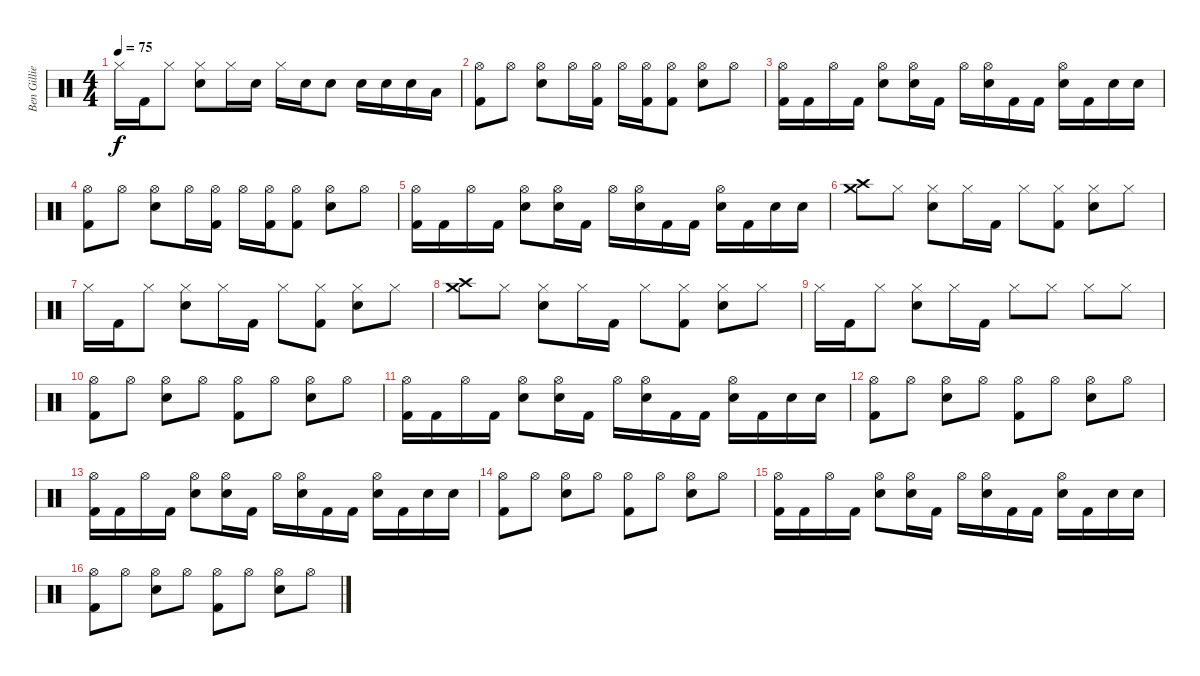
\track ("Ben Gillies" "Ben Gillie") {instrument percussion}
\staff {score}
\articulation defaults
\ts (4 4)
\tempo 75
\clef neutral
\ks c "Hi-Hat (closed)".16{dy f} "Kick (hit) 2".16 "Hi-Hat (closed)".8
("Hi-Hat (closed)" "Electric Snare (hit)").8 "Hi-Hat (closed)".16 "Electric Snare (hit)".16 "Hi-Hat (closed)".16 "Electric Snare (hit)".16 "Electric Snare (hit)".8 "Electric Snare (hit)".16 "Electric Snare (hit)".16 "Electric Snare (hit)".16 "Low Tom (hit)".16 |
("Hi-Hat (open)" "Kick (hit) 2").8 "Hi-Hat (open)".8 ("Hi-Hat (open)" "Electric Snare (hit)").8 "Hi-Hat (open)".16 ("Hi-Hat (open)" "Kick (hit) 2").16 "Hi-Hat (open)".16 ("Hi-Hat (open)" "Kick (hit) 2").16 ("Hi-Hat (open)" "Kick (hit) 2").8 ("Hi-Hat (open)" "Electric Snare (hit)").8 "Hi-Hat (open)".8 |
("Hi-Hat (open)" "Kick (hit) 2").16 "Kick (hit) 2".16 "Hi-Hat (open)".16 "Kick (hit) 2".16 ("Hi-Hat (open)" "Electric Snare (hit)").8 ("Hi-Hat (open)" "Electric Snare (hit)").16 "Kick (hit) 2".16 "Hi-Hat (open)".16 ("Hi-Hat (open)" "Electric Snare (hit)").16 "Kick (hit) 2".16 "Kick (hit) 2".16 ("Hi-Hat (open)" "Electric Snare (hit)").16 "Kick (hit) 2".16 "Electric Snare (hit)".16 "Electric Snare (hit)".16 |
("Hi-Hat (open)" "Kick (hit) 2").8 "Hi-Hat (open)".8 ("Hi-Hat (open)" "Electric Snare (hit)").8 "Hi-Hat (open)".16 ("Hi-Hat (open)" "Kick (hit) 2").16 "Hi-Hat (open)".16 ("Hi-Hat (open)" "Kick (hit) 2").16 ("Hi-Hat (open)" "Kick (hit) 2").8 ("Hi-Hat (open)" "Electric Snare (hit)").8 "Hi-Hat (open)".8 |
("Hi-Hat (open)" "Kick (hit) 2").16 "Kick (hit) 2".16 "Hi-Hat (open)".16 "Kick (hit) 2".16 ("Hi-Hat (open)" "Electric Snare (hit)").8 ("Hi-Hat (open)" "Electric Snare (hit)").16 "Kick (hit) 2".16 "Hi-Hat (open)".16 ("Hi-Hat (open)" "Electric Snare (hit)").16 "Kick (hit) 2".16 "Kick (hit) 2".16 ("Hi-Hat (open)" "Electric Snare (hit)").16 "Kick (hit) 2".16 "Electric Snare (hit)".16 "Electric Snare (hit)".16 |
("Crash high (hit)" "Crash medium (hit)").8 "Hi-Hat (closed)".8 ("Hi-Hat (closed)" "Electric Snare (hit)").8 "Hi-Hat (closed)".16 "Kick (hit) 2".16 "Hi-Hat (closed)".8 ("Hi-Hat (closed)" "Kick (hit) 2").8 ("Hi-Hat (closed)" "Electric Snare (hit)").8 "Hi-Hat (closed)".8 |
"Hi-Hat (closed)".16 "Kick (hit) 2".16 "Hi-Hat (closed)".8 ("Hi-Hat (closed)" "Electric Snare (hit)").8 "Hi-Hat (closed)".16 "Kick (hit) 2".16 "Hi-Hat (closed)".8 ("Hi-Hat (closed)" "Kick (hit) 2").8 ("Hi-Hat (closed)" "Electric Snare (hit)").8 "Hi-Hat (closed)".8 |
("Crash high (hit)" "Crash medium (hit)").8 "Hi-Hat (closed)".8 ("Hi-Hat (closed)" "Electric Snare (hit)").8 "Hi-Hat (closed)".16 "Kick (hit) 2".16 "Hi-Hat (closed)".8 ("Hi-Hat (closed)" "Kick (hit) 2").8 ("Hi-Hat (closed)" "Electric Snare (hit)").8 "Hi-Hat (closed)".8 |
"Hi-Hat (closed)".16 "Kick (hit) 2".16 "Hi-Hat (closed)".8 ("Hi-Hat (closed)" "Electric Snare (hit)").8 "Hi-Hat (closed)".16 "Kick (hit) 2".16 "Hi-Hat (closed)".8 "Hi-Hat (closed)".8 "Hi-Hat (closed)".8 "Hi-Hat (closed)".8 |
("Hi-Hat (open)" "Kick (hit) 2").8 "Hi-Hat (open)".8 ("Hi-Hat (open)" "Electric Snare (hit)").8 "Hi-Hat (open)".8 ("Hi-Hat (open)" "Kick (hit) 2").8 "Hi-Hat (open)".8 ("Hi-Hat (open)" "Electric Snare (hit)").8 "Hi-Hat (open)".8 |
("Hi-Hat (open)" "Kick (hit) 2").16 "Kick (hit) 2".16 "Hi-Hat (open)".16 "Kick (hit) 2".16 ("Hi-Hat (open)" "Electric Snare (hit)").8 ("Hi-Hat (open)" "Electric Snare (hit)").16 "Kick (hit) 2".16 "Hi-Hat (open)".16 ("Hi-Hat (open)" "Electric Snare (hit)").16 "Kick (hit) 2".16 "Kick (hit) 2".16 ("Hi-Hat (open)" "Electric Snare (hit)").16 "Kick (hit) 2".16 "Electric Snare (hit)".16 "Electric Snare (hit)".16 |
("Hi-Hat (open)" "Kick (hit) 2").8 "Hi-Hat (open)".8 ("Hi-Hat (open)" "Electric Snare (hit)").8 "Hi-Hat (open)".8 ("Hi-Hat (open)" "Kick (hit) 2").8 "Hi-Hat (open)".8 ("Hi-Hat (open)" "Electric Snare (hit)").8 "Hi-Hat (open)".8 |
("Hi-Hat (open)" "Kick (hit) 2").16 "Kick (hit) 2".16 "Hi-Hat (open)".16 "Kick (hit) 2".16 ("Hi-Hat (open)" "Electric Snare (hit)").8 ("Hi-Hat (open)" "Electric Snare (hit)").16 "Kick (hit) 2".16 "Hi-Hat (open)".16 ("Hi-Hat (open)" "Electric Snare (hit)").16 "Kick (hit) 2".16 "Kick (hit) 2".16 ("Hi-Hat (open)" "Electric Snare (hit)").16 "Kick (hit) 2".16 "Electric Snare (hit)".16 "Electric Snare (hit)".16 |
("Hi-Hat (open)" "Kick (hit) 2").8 "Hi-Hat (open)".8 ("Hi-Hat (open)" "Electric Snare (hit)").8 "Hi-Hat (open)".8 ("Hi-Hat (open)" "Kick (hit) 2").8 "Hi-Hat (open)".8 ("Hi-Hat (open)" "Electric Snare (hit)").8 "Hi-Hat (open)".8 |
("Hi-Hat (open)" "Kick (hit) 2").16 "Kick (hit) 2".16 "Hi-Hat (open)".16 "Kick (hit) 2".16 ("Hi-Hat (open)" "Electric Snare (hit)").8 ("Hi-Hat (open)" "Electric Snare (hit)").16 "Kick (hit) 2".16 "Hi-Hat (open)".16 ("Hi-Hat (open)" "Electric Snare (hit)").16 "Kick (hit) 2".16 "Kick (hit) 2".16 ("Hi-Hat (open)" "Electric Snare (hit)").16 "Kick (hit) 2".16 "Electric Snare (hit)".16 "Electric Snare (hit)".16 |
("Hi-Hat (open)" "Kick (hit) 2").8 "Hi-Hat (open)".8 ("Hi-Hat (open)" "Electric Snare (hit)").8 "Hi-Hat (open)".8 ("Hi-Hat (open)" "Kick (hit) 2").8 "Hi-Hat (open)".8 ("Hi-Hat (open)" "Electric Snare (hit)").8 "Hi-Hat (open)".8
